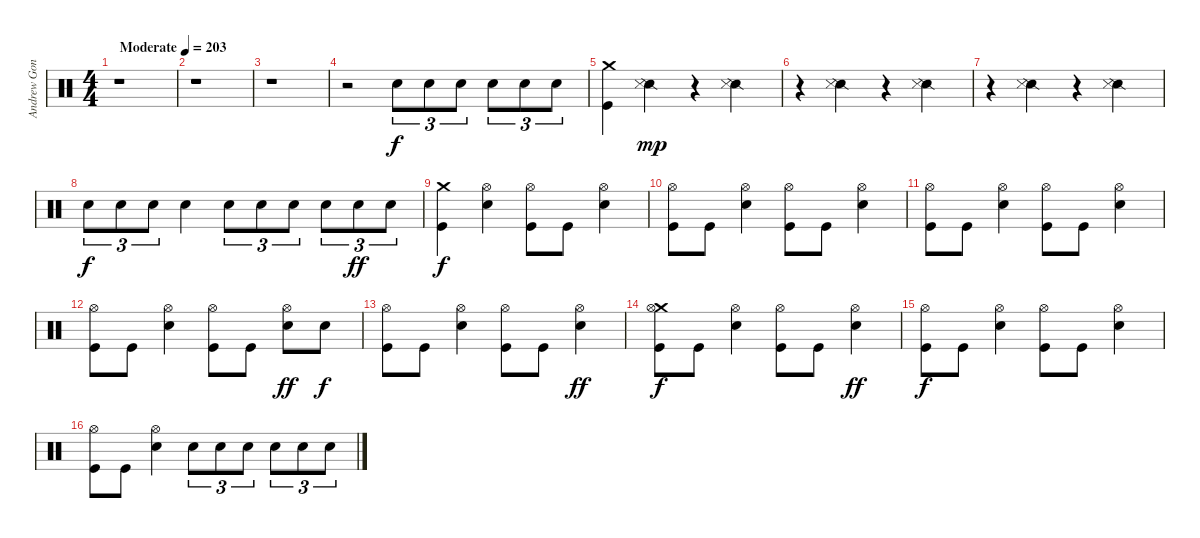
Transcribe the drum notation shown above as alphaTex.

\track ("Andrew Gonzales" "Andrew Gon") {instrument percussion}
\staff {score}
\articulation defaults
\ts (4 4)
\tempo (203 "Moderate")
\clef neutral
\ks c
r.1{dy f} |
r.1 |
r.1 |
r.2 "Electric Snare (hit)".8{tu (3 2)} "Electric Snare (hit)".8{tu (3 2)} "Electric Snare (hit)".8{tu (3 2)} "Electric Snare (hit)".8{tu (3 2)} "Electric Snare (hit)".8{tu (3 2)} "Electric Snare (hit)".8{tu (3 2)} |
("Crash medium (hit)" "Kick (hit)").4 ("Snare (side stick) 2" "Snare (side stick) 3").4{dy mp} r.4 ("Snare (side stick) 2" "Snare (side stick) 3").4 |
r.4 ("Snare (side stick) 2" "Snare (side stick) 3").4 r.4 ("Snare (side stick) 2" "Snare (side stick) 3").4 |
r.4 ("Snare (side stick) 2" "Snare (side stick) 3").4 r.4 ("Snare (side stick) 2" "Snare (side stick) 3").4 |
"Electric Snare (hit)".8{tu (3 2) dy f} "Electric Snare (hit)".8{tu (3 2)} "Electric Snare (hit)".8{tu (3 2)} "Electric Snare (hit)".4 "Electric Snare (hit)".8{tu (3 2)} "Electric Snare (hit)".8{tu (3 2)} "Electric Snare (hit)".8{tu (3 2)} "Electric Snare (hit)".8{tu (3 2)} "Electric Snare (hit)".8{tu (3 2) dy ff} "Electric Snare (hit)".8{tu (3 2)} |
("Crash medium (hit)" "Kick (hit)").4{dy f} ("Hi-Hat (open)" "Electric Snare (hit)").4 ("Hi-Hat (open)" "Kick (hit)").8 "Kick (hit)".8 ("Hi-Hat (open)" "Electric Snare (hit)").4 |
("Hi-Hat (open)" "Kick (hit)").8 "Kick (hit)".8 ("Hi-Hat (open)" "Electric Snare (hit)").4 ("Hi-Hat (open)" "Kick (hit)").8 "Kick (hit)".8 ("Hi-Hat (open)" "Electric Snare (hit)").4 |
("Hi-Hat (open)" "Kick (hit)").8 "Kick (hit)".8 ("Hi-Hat (open)" "Electric Snare (hit)").4 ("Hi-Hat (open)" "Kick (hit)").8 "Kick (hit)".8 ("Hi-Hat (open)" "Electric Snare (hit)").4 |
("Hi-Hat (open)" "Kick (hit)").8 "Kick (hit)".8 ("Hi-Hat (open)" "Electric Snare (hit)").4 ("Hi-Hat (open)" "Kick (hit)").8 "Kick (hit)".8 ("Hi-Hat (open)" "Electric Snare (hit)").8{dy ff} "Electric Snare (hit)".8{dy f} |
("Hi-Hat (open)" "Kick (hit)").8 "Kick (hit)".8 ("Hi-Hat (open)" "Electric Snare (hit)").4 ("Hi-Hat (open)" "Kick (hit)").8 "Kick (hit)".8 ("Hi-Hat (open)" "Electric Snare (hit)").4{dy ff} |
("Crash medium (hit)" "Hi-Hat (open)" "Kick (hit)").8{dy f} "Kick (hit)".8 ("Hi-Hat (open)" "Electric Snare (hit)").4 ("Hi-Hat (open)" "Kick (hit)").8 "Kick (hit)".8 ("Hi-Hat (open)" "Electric Snare (hit)").4{dy ff} |
("Hi-Hat (open)" "Kick (hit)").8{dy f} "Kick (hit)".8 ("Hi-Hat (open)" "Electric Snare (hit)").4 ("Hi-Hat (open)" "Kick (hit)").8 "Kick (hit)".8 ("Hi-Hat (open)" "Electric Snare (hit)").4 |
("Hi-Hat (open)" "Kick (hit)").8 "Kick (hit)".8 ("Hi-Hat (open)" "Electric Snare (hit)").4 "Electric Snare (hit)".8{tu (3 2)} "Electric Snare (hit)".8{tu (3 2)} "Electric Snare (hit)".8{tu (3 2)} "Electric Snare (hit)".8{tu (3 2)} "Electric Snare (hit)".8{tu (3 2)} "Electric Snare (hit)".8{tu (3 2)}
